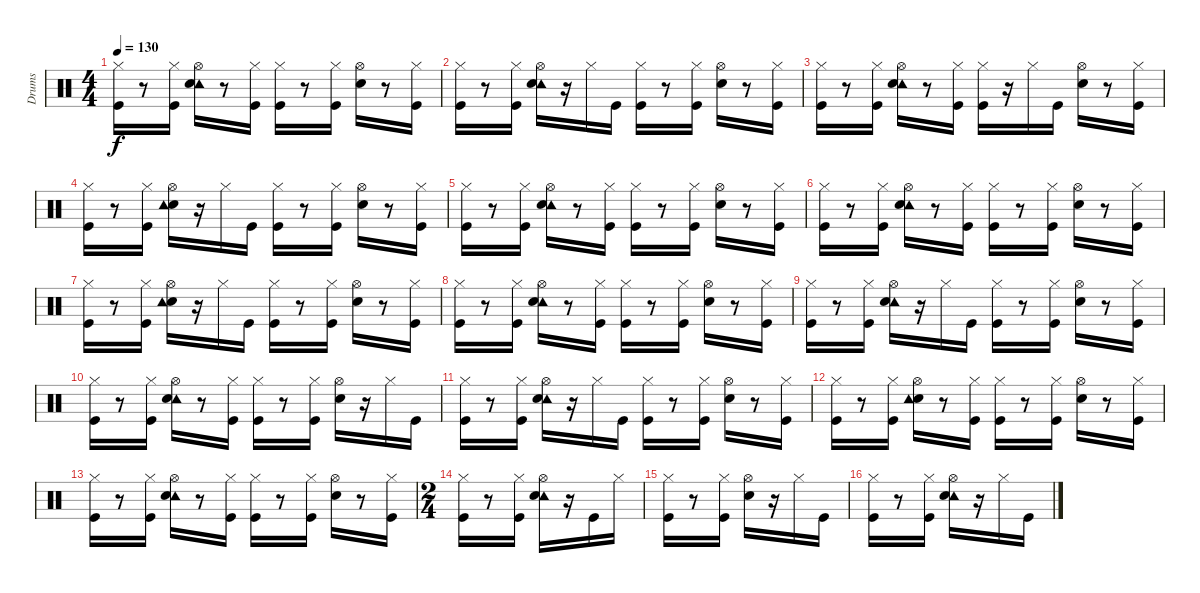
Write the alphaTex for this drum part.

\track ("Drums" "Drums") {instrument percussion}
\staff {score}
\articulation defaults
\ts (4 4)
\tempo 130
\clef neutral
\ks c
("Kick (hit)" "Hi-Hat (closed)").16{dy f} r.8 ("Kick (hit)" "Hi-Hat (closed)").16 ("Tambourine (hit)" "Hi-Hat (open)" "Electric Snare (hit)").16 r.8 ("Kick (hit)" "Hi-Hat (closed)").16 ("Hi-Hat (closed)" "Kick (hit)").16 r.8 ("Hi-Hat (closed)" "Kick (hit)").16 ("Electric Snare (hit)" "Hi-Hat (open)").16 r.8 ("Hi-Hat (closed)" "Kick (hit)").16 |
("Kick (hit)" "Hi-Hat (closed)").16 r.8 ("Kick (hit)" "Hi-Hat (closed)").16 ("Tambourine (hit)" "Electric Snare (hit)" "Hi-Hat (open)").16 r.16 "Hi-Hat (closed)".16 "Kick (hit)".16 ("Kick (hit)" "Hi-Hat (closed)").16 r.8 ("Kick (hit)" "Hi-Hat (closed)").16 ("Electric Snare (hit)" "Hi-Hat (open)").16 r.8 ("Kick (hit)" "Hi-Hat (closed)").16 |
("Hi-Hat (closed)" "Kick (hit)").16 r.8 ("Hi-Hat (closed)" "Kick (hit)").16 ("Hi-Hat (open)" "Tambourine (hit)" "Electric Snare (hit)").16 r.8 ("Kick (hit)" "Hi-Hat (closed)").16 ("Kick (hit)" "Hi-Hat (closed)").16 r.16 "Hi-Hat (closed)".16 "Kick (hit)".16 ("Electric Snare (hit)" "Hi-Hat (open)").16 r.8 ("Hi-Hat (closed)" "Kick (hit)").16 |
("Kick (hit)" "Hi-Hat (closed)").16 r.8 ("Hi-Hat (closed)" "Kick (hit)").16 ("Electric Snare (hit)" "Tambourine (hit)" "Hi-Hat (open)").16 r.16 "Hi-Hat (closed)".16 "Kick (hit)".16 ("Kick (hit)" "Hi-Hat (closed)").16 r.8 ("Hi-Hat (closed)" "Kick (hit)").16 ("Electric Snare (hit)" "Hi-Hat (open)").16 r.8 ("Hi-Hat (closed)" "Kick (hit)").16 |
("Hi-Hat (closed)" "Kick (hit)").16 r.8 ("Kick (hit)" "Hi-Hat (closed)").16 ("Hi-Hat (open)" "Tambourine (hit)" "Electric Snare (hit)").16 r.8 ("Hi-Hat (closed)" "Kick (hit)").16 ("Kick (hit)" "Hi-Hat (closed)").16 r.8 ("Kick (hit)" "Hi-Hat (closed)").16 ("Hi-Hat (open)" "Electric Snare (hit)").16 r.8 ("Hi-Hat (closed)" "Kick (hit)").16 |
("Kick (hit)" "Hi-Hat (closed)").16 r.8 ("Hi-Hat (closed)" "Kick (hit)").16 ("Tambourine (hit)" "Electric Snare (hit)" "Hi-Hat (open)").16 r.8 ("Hi-Hat (closed)" "Kick (hit)").16 ("Kick (hit)" "Hi-Hat (closed)").16 r.8 ("Kick (hit)" "Hi-Hat (closed)").16 ("Electric Snare (hit)" "Hi-Hat (open)").16 r.8 ("Kick (hit)" "Hi-Hat (closed)").16 |
("Kick (hit)" "Hi-Hat (closed)").16 r.8 ("Hi-Hat (closed)" "Kick (hit)").16 ("Electric Snare (hit)" "Hi-Hat (open)" "Tambourine (hit)").16 r.16 "Hi-Hat (closed)".16 "Kick (hit)".16 ("Kick (hit)" "Hi-Hat (closed)").16 r.8 ("Kick (hit)" "Hi-Hat (closed)").16 ("Hi-Hat (open)" "Electric Snare (hit)").16 r.8 ("Kick (hit)" "Hi-Hat (closed)").16 |
("Kick (hit)" "Hi-Hat (closed)").16 r.8 ("Kick (hit)" "Hi-Hat (closed)").16 ("Tambourine (hit)" "Electric Snare (hit)" "Hi-Hat (open)").16 r.8 ("Hi-Hat (closed)" "Kick (hit)").16 ("Kick (hit)" "Hi-Hat (closed)").16 r.8 ("Hi-Hat (closed)" "Kick (hit)").16 ("Electric Snare (hit)" "Hi-Hat (open)").16 r.8 ("Kick (hit)" "Hi-Hat (closed)").16 |
("Kick (hit)" "Hi-Hat (closed)").16 r.8 ("Kick (hit)" "Hi-Hat (closed)").16 ("Tambourine (hit)" "Electric Snare (hit)" "Hi-Hat (open)").16 r.16 "Hi-Hat (closed)".16 "Kick (hit)".16 ("Kick (hit)" "Hi-Hat (closed)").16 r.8 ("Hi-Hat (closed)" "Kick (hit)").16 ("Electric Snare (hit)" "Hi-Hat (open)").16 r.8 ("Kick (hit)" "Hi-Hat (closed)").16 |
("Kick (hit)" "Hi-Hat (closed)").16 r.8 ("Kick (hit)" "Hi-Hat (closed)").16 ("Tambourine (hit)" "Electric Snare (hit)" "Hi-Hat (open)").16 r.8 ("Kick (hit)" "Hi-Hat (closed)").16 ("Kick (hit)" "Hi-Hat (closed)").16 r.8 ("Hi-Hat (closed)" "Kick (hit)").16 ("Electric Snare (hit)" "Hi-Hat (open)").16 r.16 "Hi-Hat (closed)".16 "Kick (hit)".16 |
("Hi-Hat (closed)" "Kick (hit)").16 r.8 ("Kick (hit)" "Hi-Hat (closed)").16 ("Hi-Hat (open)" "Tambourine (hit)" "Electric Snare (hit)").16 r.16 "Hi-Hat (closed)".16 "Kick (hit)".16 ("Kick (hit)" "Hi-Hat (closed)").16 r.8 ("Kick (hit)" "Hi-Hat (closed)").16 ("Hi-Hat (open)" "Electric Snare (hit)").16 r.8 ("Hi-Hat (closed)" "Kick (hit)").16 |
("Hi-Hat (closed)" "Kick (hit)").16 r.8 ("Kick (hit)" "Hi-Hat (closed)").16 ("Electric Snare (hit)" "Hi-Hat (open)" "Tambourine (hit)").16 r.8 ("Hi-Hat (closed)" "Kick (hit)").16 ("Kick (hit)" "Hi-Hat (closed)").16 r.8 ("Kick (hit)" "Hi-Hat (closed)").16 ("Hi-Hat (open)" "Electric Snare (hit)").16 r.8 ("Kick (hit)" "Hi-Hat (closed)").16 |
("Kick (hit)" "Hi-Hat (closed)").16 r.8 ("Kick (hit)" "Hi-Hat (closed)").16 ("Tambourine (hit)" "Electric Snare (hit)" "Hi-Hat (open)").16 r.8 ("Kick (hit)" "Hi-Hat (closed)").16 ("Hi-Hat (closed)" "Kick (hit)").16 r.8 ("Kick (hit)" "Hi-Hat (closed)").16 ("Hi-Hat (open)" "Electric Snare (hit)").16 r.8 ("Kick (hit)" "Hi-Hat (closed)").16 |
\ts (2 4)
("Hi-Hat (closed)" "Kick (hit)").16 r.8 ("Kick (hit)" "Hi-Hat (closed)").16 ("Tambourine (hit)" "Electric Snare (hit)" "Hi-Hat (open)").16 r.16 "Kick (hit)".16 "Hi-Hat (closed)".16 |
("Kick (hit)" "Hi-Hat (closed)").16 r.8 ("Hi-Hat (closed)" "Kick (hit)").16 ("Electric Snare (hit)" "Hi-Hat (open)").16 r.16 "Hi-Hat (closed)".16 "Kick (hit)".16 |
("Hi-Hat (closed)" "Kick (hit)").16 r.8 ("Hi-Hat (closed)" "Kick (hit)").16 ("Tambourine (hit)" "Hi-Hat (open)" "Electric Snare (hit)").16 r.16 "Hi-Hat (closed)".16 "Kick (hit)".16
